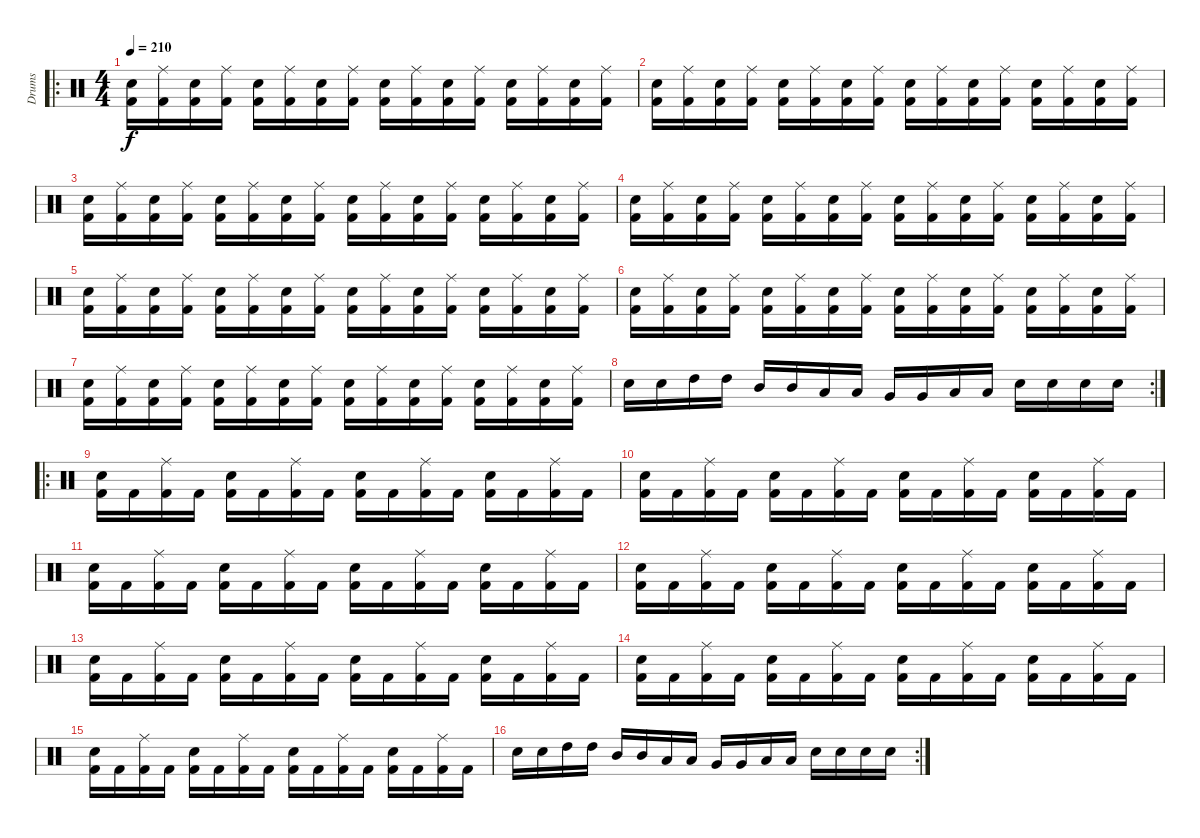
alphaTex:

\track ("Drums" "Drums") {instrument percussion}
\staff {score}
\articulation defaults
\ro
\ts (4 4)
\tempo 210
\clef neutral
\ks c
("Electric Snare (hit)" "Kick (hit) 2").16{dy f} ("Ride (middle)" "Kick (hit) 2").16 ("Electric Snare (hit)" "Kick (hit) 2").16 ("Ride (middle)" "Kick (hit) 2").16 ("Electric Snare (hit)" "Kick (hit) 2").16 ("Ride (middle)" "Kick (hit) 2").16 ("Electric Snare (hit)" "Kick (hit) 2").16 ("Ride (middle)" "Kick (hit) 2").16 ("Electric Snare (hit)" "Kick (hit) 2").16 ("Ride (middle)" "Kick (hit) 2").16 ("Electric Snare (hit)" "Kick (hit) 2").16 ("Ride (middle)" "Kick (hit) 2").16 ("Electric Snare (hit)" "Kick (hit) 2").16 ("Ride (middle)" "Kick (hit) 2").16 ("Electric Snare (hit)" "Kick (hit) 2").16 ("Ride (middle)" "Kick (hit) 2").16 |
("Electric Snare (hit)" "Kick (hit) 2").16 ("Ride (middle)" "Kick (hit) 2").16 ("Electric Snare (hit)" "Kick (hit) 2").16 ("Ride (middle)" "Kick (hit) 2").16 ("Electric Snare (hit)" "Kick (hit) 2").16 ("Ride (middle)" "Kick (hit) 2").16 ("Electric Snare (hit)" "Kick (hit) 2").16 ("Ride (middle)" "Kick (hit) 2").16 ("Electric Snare (hit)" "Kick (hit) 2").16 ("Ride (middle)" "Kick (hit) 2").16 ("Electric Snare (hit)" "Kick (hit) 2").16 ("Ride (middle)" "Kick (hit) 2").16 ("Electric Snare (hit)" "Kick (hit) 2").16 ("Ride (middle)" "Kick (hit) 2").16 ("Electric Snare (hit)" "Kick (hit) 2").16 ("Ride (middle)" "Kick (hit) 2").16 |
("Electric Snare (hit)" "Kick (hit) 2").16 ("Ride (middle)" "Kick (hit) 2").16 ("Electric Snare (hit)" "Kick (hit) 2").16 ("Ride (middle)" "Kick (hit) 2").16 ("Electric Snare (hit)" "Kick (hit) 2").16 ("Ride (middle)" "Kick (hit) 2").16 ("Electric Snare (hit)" "Kick (hit) 2").16 ("Ride (middle)" "Kick (hit) 2").16 ("Electric Snare (hit)" "Kick (hit) 2").16 ("Ride (middle)" "Kick (hit) 2").16 ("Electric Snare (hit)" "Kick (hit) 2").16 ("Ride (middle)" "Kick (hit) 2").16 ("Electric Snare (hit)" "Kick (hit) 2").16 ("Ride (middle)" "Kick (hit) 2").16 ("Electric Snare (hit)" "Kick (hit) 2").16 ("Ride (middle)" "Kick (hit) 2").16 |
("Electric Snare (hit)" "Kick (hit) 2").16 ("Ride (middle)" "Kick (hit) 2").16 ("Electric Snare (hit)" "Kick (hit) 2").16 ("Ride (middle)" "Kick (hit) 2").16 ("Electric Snare (hit)" "Kick (hit) 2").16 ("Ride (middle)" "Kick (hit) 2").16 ("Electric Snare (hit)" "Kick (hit) 2").16 ("Ride (middle)" "Kick (hit) 2").16 ("Electric Snare (hit)" "Kick (hit) 2").16 ("Ride (middle)" "Kick (hit) 2").16 ("Electric Snare (hit)" "Kick (hit) 2").16 ("Ride (middle)" "Kick (hit) 2").16 ("Electric Snare (hit)" "Kick (hit) 2").16 ("Ride (middle)" "Kick (hit) 2").16 ("Electric Snare (hit)" "Kick (hit) 2").16 ("Ride (middle)" "Kick (hit) 2").16 |
("Electric Snare (hit)" "Kick (hit) 2").16 ("Ride (middle)" "Kick (hit) 2").16 ("Electric Snare (hit)" "Kick (hit) 2").16 ("Ride (middle)" "Kick (hit) 2").16 ("Electric Snare (hit)" "Kick (hit) 2").16 ("Ride (middle)" "Kick (hit) 2").16 ("Electric Snare (hit)" "Kick (hit) 2").16 ("Ride (middle)" "Kick (hit) 2").16 ("Electric Snare (hit)" "Kick (hit) 2").16 ("Ride (middle)" "Kick (hit) 2").16 ("Electric Snare (hit)" "Kick (hit) 2").16 ("Ride (middle)" "Kick (hit) 2").16 ("Electric Snare (hit)" "Kick (hit) 2").16 ("Ride (middle)" "Kick (hit) 2").16 ("Electric Snare (hit)" "Kick (hit) 2").16 ("Ride (middle)" "Kick (hit) 2").16 |
("Electric Snare (hit)" "Kick (hit) 2").16 ("Ride (middle)" "Kick (hit) 2").16 ("Electric Snare (hit)" "Kick (hit) 2").16 ("Ride (middle)" "Kick (hit) 2").16 ("Electric Snare (hit)" "Kick (hit) 2").16 ("Ride (middle)" "Kick (hit) 2").16 ("Electric Snare (hit)" "Kick (hit) 2").16 ("Ride (middle)" "Kick (hit) 2").16 ("Electric Snare (hit)" "Kick (hit) 2").16 ("Ride (middle)" "Kick (hit) 2").16 ("Electric Snare (hit)" "Kick (hit) 2").16 ("Ride (middle)" "Kick (hit) 2").16 ("Electric Snare (hit)" "Kick (hit) 2").16 ("Ride (middle)" "Kick (hit) 2").16 ("Electric Snare (hit)" "Kick (hit) 2").16 ("Ride (middle)" "Kick (hit) 2").16 |
("Electric Snare (hit)" "Kick (hit) 2").16 ("Ride (middle)" "Kick (hit) 2").16 ("Electric Snare (hit)" "Kick (hit) 2").16 ("Ride (middle)" "Kick (hit) 2").16 ("Electric Snare (hit)" "Kick (hit) 2").16 ("Ride (middle)" "Kick (hit) 2").16 ("Electric Snare (hit)" "Kick (hit) 2").16 ("Ride (middle)" "Kick (hit) 2").16 ("Electric Snare (hit)" "Kick (hit) 2").16 ("Ride (middle)" "Kick (hit) 2").16 ("Electric Snare (hit)" "Kick (hit) 2").16 ("Ride (middle)" "Kick (hit) 2").16 ("Electric Snare (hit)" "Kick (hit) 2").16 ("Ride (middle)" "Kick (hit) 2").16 ("Electric Snare (hit)" "Kick (hit) 2").16 ("Ride (middle)" "Kick (hit) 2").16 |
\rc 2 "Electric Snare (hit)".16 "Electric Snare (hit)".16 "High Tom (hit)".16 "High Tom (hit)".16 "Mid Tom (hit)".16 "Mid Tom (hit)".16 "Low Tom (hit)".16 "Low Tom (hit)".16 "Very Low Tom (hit)".16 "Very Low Tom (hit)".16 "Low Tom (hit)".16 "Low Tom (hit)".16 "Electric Snare (hit)".16 "Electric Snare (hit)".16 "Electric Snare (hit)".16 "Electric Snare (hit)".16
|
\ro
("Electric Snare (hit)" "Kick (hit) 2").16 "Kick (hit) 2".16 ("Ride (middle)" "Kick (hit) 2").16 "Kick (hit) 2".16 ("Electric Snare (hit)" "Kick (hit) 2").16 "Kick (hit) 2".16 ("Ride (middle)" "Kick (hit) 2").16 "Kick (hit) 2".16 ("Electric Snare (hit)" "Kick (hit) 2").16 "Kick (hit) 2".16 ("Ride (middle)" "Kick (hit) 2").16 "Kick (hit) 2".16 ("Electric Snare (hit)" "Kick (hit) 2").16 "Kick (hit) 2".16 ("Ride (middle)" "Kick (hit) 2").16 "Kick (hit) 2".16 |
("Electric Snare (hit)" "Kick (hit) 2").16 "Kick (hit) 2".16 ("Ride (middle)" "Kick (hit) 2").16 "Kick (hit) 2".16 ("Electric Snare (hit)" "Kick (hit) 2").16 "Kick (hit) 2".16 ("Ride (middle)" "Kick (hit) 2").16 "Kick (hit) 2".16 ("Electric Snare (hit)" "Kick (hit) 2").16 "Kick (hit) 2".16 ("Ride (middle)" "Kick (hit) 2").16 "Kick (hit) 2".16 ("Electric Snare (hit)" "Kick (hit) 2").16 "Kick (hit) 2".16 ("Ride (middle)" "Kick (hit) 2").16 "Kick (hit) 2".16 |
("Electric Snare (hit)" "Kick (hit) 2").16 "Kick (hit) 2".16 ("Ride (middle)" "Kick (hit) 2").16 "Kick (hit) 2".16 ("Electric Snare (hit)" "Kick (hit) 2").16 "Kick (hit) 2".16 ("Ride (middle)" "Kick (hit) 2").16 "Kick (hit) 2".16 ("Electric Snare (hit)" "Kick (hit) 2").16 "Kick (hit) 2".16 ("Ride (middle)" "Kick (hit) 2").16 "Kick (hit) 2".16 ("Electric Snare (hit)" "Kick (hit) 2").16 "Kick (hit) 2".16 ("Ride (middle)" "Kick (hit) 2").16 "Kick (hit) 2".16 |
("Electric Snare (hit)" "Kick (hit) 2").16 "Kick (hit) 2".16 ("Ride (middle)" "Kick (hit) 2").16 "Kick (hit) 2".16 ("Electric Snare (hit)" "Kick (hit) 2").16 "Kick (hit) 2".16 ("Ride (middle)" "Kick (hit) 2").16 "Kick (hit) 2".16 ("Electric Snare (hit)" "Kick (hit) 2").16 "Kick (hit) 2".16 ("Ride (middle)" "Kick (hit) 2").16 "Kick (hit) 2".16 ("Electric Snare (hit)" "Kick (hit) 2").16 "Kick (hit) 2".16 ("Ride (middle)" "Kick (hit) 2").16 "Kick (hit) 2".16 |
("Electric Snare (hit)" "Kick (hit) 2").16 "Kick (hit) 2".16 ("Ride (middle)" "Kick (hit) 2").16 "Kick (hit) 2".16 ("Electric Snare (hit)" "Kick (hit) 2").16 "Kick (hit) 2".16 ("Ride (middle)" "Kick (hit) 2").16 "Kick (hit) 2".16 ("Electric Snare (hit)" "Kick (hit) 2").16 "Kick (hit) 2".16 ("Ride (middle)" "Kick (hit) 2").16 "Kick (hit) 2".16 ("Electric Snare (hit)" "Kick (hit) 2").16 "Kick (hit) 2".16 ("Ride (middle)" "Kick (hit) 2").16 "Kick (hit) 2".16 |
("Electric Snare (hit)" "Kick (hit) 2").16 "Kick (hit) 2".16 ("Ride (middle)" "Kick (hit) 2").16 "Kick (hit) 2".16 ("Electric Snare (hit)" "Kick (hit) 2").16 "Kick (hit) 2".16 ("Ride (middle)" "Kick (hit) 2").16 "Kick (hit) 2".16 ("Electric Snare (hit)" "Kick (hit) 2").16 "Kick (hit) 2".16 ("Ride (middle)" "Kick (hit) 2").16 "Kick (hit) 2".16 ("Electric Snare (hit)" "Kick (hit) 2").16 "Kick (hit) 2".16 ("Ride (middle)" "Kick (hit) 2").16 "Kick (hit) 2".16 |
("Electric Snare (hit)" "Kick (hit) 2").16 "Kick (hit) 2".16 ("Ride (middle)" "Kick (hit) 2").16 "Kick (hit) 2".16 ("Electric Snare (hit)" "Kick (hit) 2").16 "Kick (hit) 2".16 ("Ride (middle)" "Kick (hit) 2").16 "Kick (hit) 2".16 ("Electric Snare (hit)" "Kick (hit) 2").16 "Kick (hit) 2".16 ("Ride (middle)" "Kick (hit) 2").16 "Kick (hit) 2".16 ("Electric Snare (hit)" "Kick (hit) 2").16 "Kick (hit) 2".16 ("Ride (middle)" "Kick (hit) 2").16 "Kick (hit) 2".16 |
\rc 2 "Electric Snare (hit)".16 "Electric Snare (hit)".16 "High Tom (hit)".16 "High Tom (hit)".16 "Mid Tom (hit)".16 "Mid Tom (hit)".16 "Low Tom (hit)".16 "Low Tom (hit)".16 "Very Low Tom (hit)".16 "Very Low Tom (hit)".16 "Low Tom (hit)".16 "Low Tom (hit)".16 "Electric Snare (hit)".16 "Electric Snare (hit)".16 "Electric Snare (hit)".16 "Electric Snare (hit)".16
